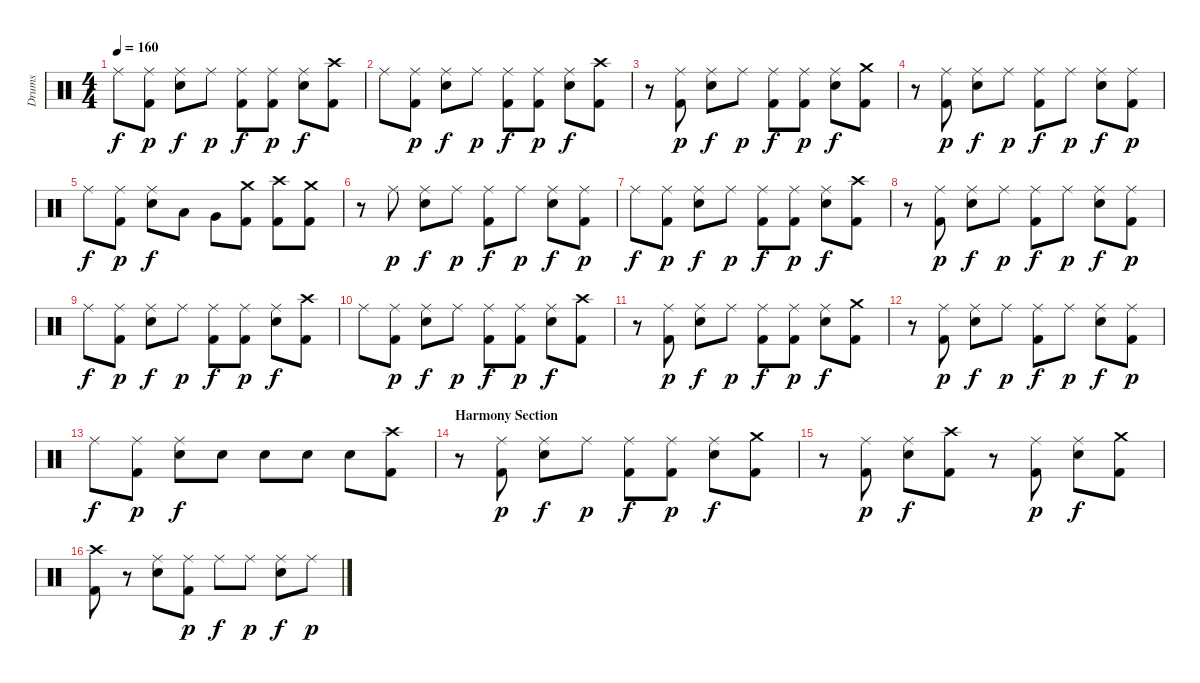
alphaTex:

\track ("Drums" "Drums") {instrument percussion}
\staff {score}
\articulation defaults
\ts (4 4)
\tempo 160
\clef neutral
\ks c "Ride (middle)".8{dy f}
("Ride (middle)" "Kick (hit) 2").8{dy p} ("Ride (middle)" "Snare (hit) 2").8{dy f} "Ride (middle)".8{dy p} ("Ride (middle)" "Kick (hit) 2").8{dy f} ("Ride (middle)" "Kick (hit) 2").8{dy p} ("Ride (middle)" "Snare (hit) 2").8{dy f} ("Crash high (hit)" "Kick (hit) 2").8 |
"Ride (middle)".8 ("Ride (middle)" "Kick (hit) 2").8{dy p} ("Ride (middle)" "Snare (hit) 2").8{dy f} "Ride (middle)".8{dy p} ("Ride (middle)" "Kick (hit) 2").8{dy f} ("Ride (middle)" "Kick (hit) 2").8{dy p} ("Ride (middle)" "Snare (hit) 2").8{dy f} ("Crash high (hit)" "Kick (hit) 2").8 |
r.8 ("Ride (middle)" "Kick (hit) 2").8{dy p} ("Ride (middle)" "Snare (hit) 2").8{dy f} "Ride (middle)".8{dy p} ("Ride (middle)" "Kick (hit) 2").8{dy f} ("Ride (middle)" "Kick (hit) 2").8{dy p} ("Ride (middle)" "Snare (hit) 2").8{dy f} ("Crash medium (hit)" "Kick (hit) 2").8 |
r.8 ("Ride (middle)" "Kick (hit) 2").8{dy p} ("Ride (middle)" "Snare (hit) 2").8{dy f} "Ride (middle)".8{dy p} ("Ride (middle)" "Kick (hit) 2").8{dy f} "Ride (middle)".8{dy p} ("Ride (middle)" "Snare (hit) 2").8{dy f} ("Ride (middle)" "Kick (hit) 2").8{dy p} |
"Ride (middle)".8{dy f} ("Ride (middle)" "Kick (hit) 2").8{dy p} ("Ride (middle)" "Snare (hit) 2").8{dy f} "Low Tom (hit)".8 "Very Low Tom (hit)".8 ("Crash medium (hit)" "Kick (hit) 2").8 ("Crash high (hit)" "Kick (hit) 2").8 ("Crash medium (hit)" "Kick (hit) 2").8 |
r.8 "Ride (middle)".8{dy p} ("Ride (middle)" "Snare (hit) 2").8{dy f} "Ride (middle)".8{dy p} ("Ride (middle)" "Kick (hit) 2").8{dy f} "Ride (middle)".8{dy p} ("Ride (middle)" "Snare (hit) 2").8{dy f} ("Ride (middle)" "Kick (hit) 2").8{dy p} |
"Ride (middle)".8{dy f} ("Ride (middle)" "Kick (hit) 2").8{dy p} ("Ride (middle)" "Snare (hit) 2").8{dy f} "Ride (middle)".8{dy p} ("Ride (middle)" "Kick (hit) 2").8{dy f} ("Ride (middle)" "Kick (hit) 2").8{dy p} ("Ride (middle)" "Snare (hit) 2").8{dy f} ("Crash high (hit)" "Kick (hit) 2").8 |
r.8 ("Ride (middle)" "Kick (hit) 2").8{dy p} ("Ride (middle)" "Snare (hit) 2").8{dy f} "Ride (middle)".8{dy p} ("Ride (middle)" "Kick (hit) 2").8{dy f} "Ride (middle)".8{dy p} ("Ride (middle)" "Snare (hit) 2").8{dy f} ("Ride (middle)" "Kick (hit) 2").8{dy p} |
"Ride (middle)".8{dy f} ("Ride (middle)" "Kick (hit) 2").8{dy p} ("Ride (middle)" "Snare (hit) 2").8{dy f} "Ride (middle)".8{dy p} ("Ride (middle)" "Kick (hit) 2").8{dy f} ("Ride (middle)" "Kick (hit) 2").8{dy p} ("Ride (middle)" "Snare (hit) 2").8{dy f} ("Crash high (hit)" "Kick (hit) 2").8 |
"Ride (middle)".8 ("Ride (middle)" "Kick (hit) 2").8{dy p} ("Ride (middle)" "Snare (hit) 2").8{dy f} "Ride (middle)".8{dy p} ("Ride (middle)" "Kick (hit) 2").8{dy f} ("Ride (middle)" "Kick (hit) 2").8{dy p} ("Ride (middle)" "Snare (hit) 2").8{dy f} ("Crash high (hit)" "Kick (hit) 2").8 |
r.8 ("Ride (middle)" "Kick (hit) 2").8{dy p} ("Ride (middle)" "Snare (hit) 2").8{dy f} "Ride (middle)".8{dy p} ("Ride (middle)" "Kick (hit) 2").8{dy f} ("Ride (middle)" "Kick (hit) 2").8{dy p} ("Ride (middle)" "Snare (hit) 2").8{dy f} ("Crash medium (hit)" "Kick (hit) 2").8 |
r.8 ("Ride (middle)" "Kick (hit) 2").8{dy p} ("Ride (middle)" "Snare (hit) 2").8{dy f} "Ride (middle)".8{dy p} ("Ride (middle)" "Kick (hit) 2").8{dy f} "Ride (middle)".8{dy p} ("Ride (middle)" "Snare (hit) 2").8{dy f} ("Ride (middle)" "Kick (hit) 2").8{dy p} |
"Ride (middle)".8{dy f} ("Ride (middle)" "Kick (hit) 2").8{dy p} ("Ride (middle)" "Snare (hit) 2").8{dy f} "Snare (hit) 2".8 "Snare (hit) 2".8 "Snare (hit) 2".8 "Snare (hit) 2".8 ("Crash high (hit)" "Kick (hit) 2").8 |
\section ("" "Harmony Section")
r.8 ("Ride (middle)" "Kick (hit) 2").8{dy p} ("Ride (middle)" "Snare (hit) 2").8{dy f} "Ride (middle)".8{dy p} ("Ride (middle)" "Kick (hit) 2").8{dy f} ("Ride (middle)" "Kick (hit) 2").8{dy p} ("Ride (middle)" "Snare (hit) 2").8{dy f} ("Crash medium (hit)" "Kick (hit) 2").8 |
r.8 ("Ride (middle)" "Kick (hit) 2").8{dy p} ("Ride (middle)" "Snare (hit) 2").8{dy f} ("Crash high (hit)" "Kick (hit) 2").8 r.8 ("Ride (middle)" "Kick (hit) 2").8{dy p} ("Ride (middle)" "Snare (hit) 2").8{dy f} ("Crash medium (hit)" "Kick (hit) 2").8 |
("Crash high (hit)" "Kick (hit) 2").8 r.8 ("Ride (middle)" "Snare (hit) 2").8 ("Ride (middle)" "Kick (hit) 2").8{dy p} "Ride (middle)".8{dy f} "Ride (middle)".8{dy p} ("Ride (middle)" "Snare (hit) 2").8{dy f} "Ride (middle)".8{dy p}
